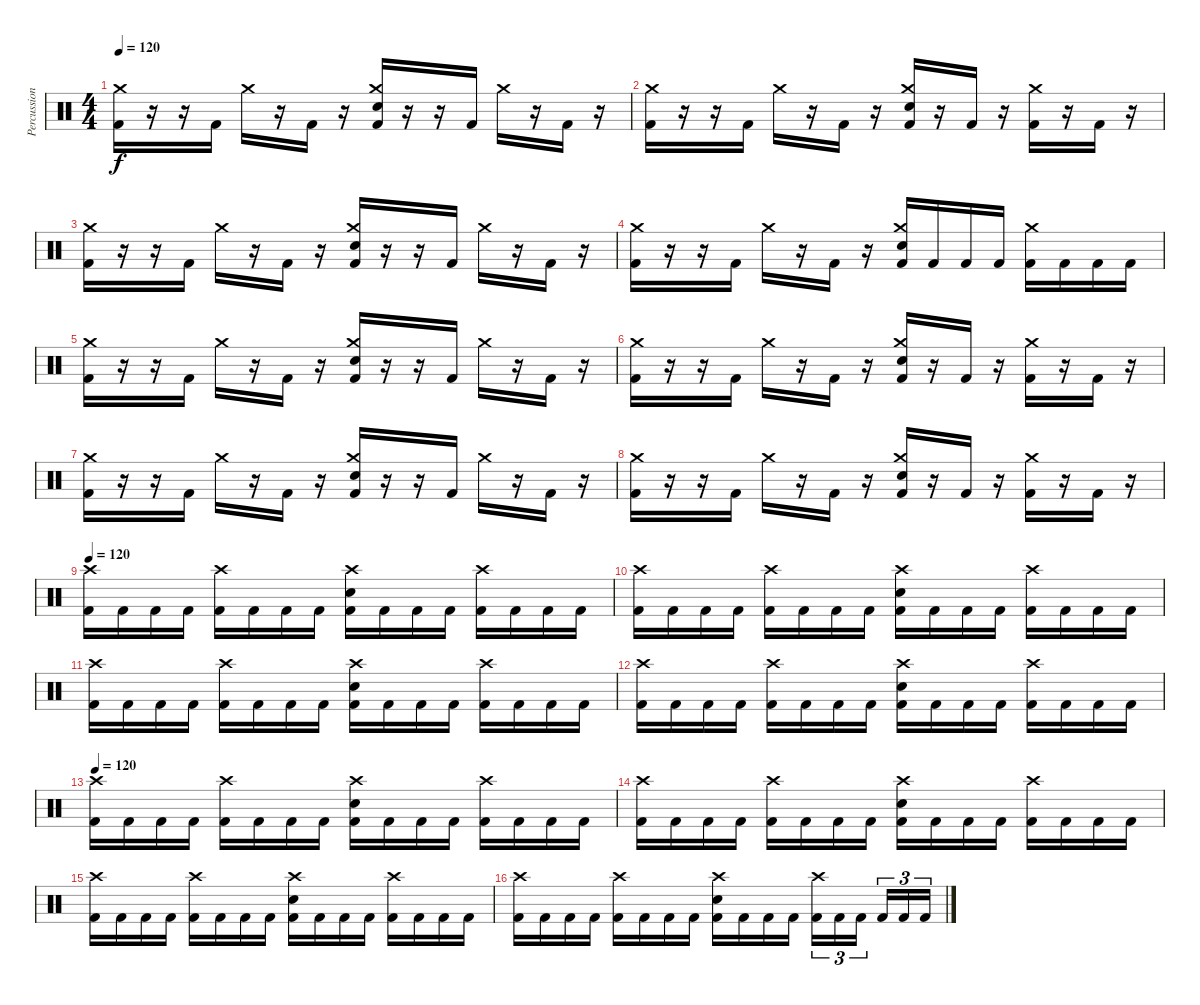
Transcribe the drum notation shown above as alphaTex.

\track ("Percussion" "Percussion") {instrument percussion}
\staff {score}
\articulation defaults
\ts (4 4)
\tempo 120
\clef neutral
\ks c
("Kick (hit) 2" "Crash medium (hit)").16{dy f} r.16 r.16 "Kick (hit) 2".16 "Crash medium (hit)".16 r.16 "Kick (hit) 2".16 r.16 ("Kick (hit) 2" "Snare (hit) 2" "Crash medium (hit)").16 r.16 r.16 "Kick (hit) 2".16 "Crash medium (hit)".16 r.16 "Kick (hit) 2".16 r.16 |
("Kick (hit) 2" "Crash medium (hit)").16 r.16 r.16 "Kick (hit) 2".16 "Crash medium (hit)".16 r.16 "Kick (hit) 2".16 r.16 ("Kick (hit) 2" "Snare (hit) 2" "Crash medium (hit)").16 r.16 "Kick (hit) 2".16 r.16 ("Kick (hit) 2" "Crash medium (hit)").16 r.16 "Kick (hit) 2".16 r.16 |
("Kick (hit) 2" "Crash medium (hit)").16 r.16 r.16 "Kick (hit) 2".16 "Crash medium (hit)".16 r.16 "Kick (hit) 2".16 r.16 ("Kick (hit) 2" "Snare (hit) 2" "Crash medium (hit)").16 r.16 r.16 "Kick (hit) 2".16 "Crash medium (hit)".16 r.16 "Kick (hit) 2".16 r.16 |
("Kick (hit) 2" "Crash medium (hit)").16 r.16 r.16 "Kick (hit) 2".16 "Crash medium (hit)".16 r.16 "Kick (hit) 2".16 r.16 ("Kick (hit) 2" "Snare (hit) 2" "Crash medium (hit)").16 "Kick (hit) 2".16 "Kick (hit) 2".16 "Kick (hit) 2".16 ("Kick (hit) 2" "Crash medium (hit)").16 "Kick (hit) 2".16 "Kick (hit) 2".16 "Kick (hit) 2".16 |
("Kick (hit) 2" "Crash medium (hit)").16 r.16 r.16 "Kick (hit) 2".16 "Crash medium (hit)".16 r.16 "Kick (hit) 2".16 r.16 ("Kick (hit) 2" "Snare (hit) 2" "Crash medium (hit)").16 r.16 r.16 "Kick (hit) 2".16 "Crash medium (hit)".16 r.16 "Kick (hit) 2".16 r.16 |
("Kick (hit) 2" "Crash medium (hit)").16 r.16 r.16 "Kick (hit) 2".16 "Crash medium (hit)".16 r.16 "Kick (hit) 2".16 r.16 ("Kick (hit) 2" "Snare (hit) 2" "Crash medium (hit)").16 r.16 "Kick (hit) 2".16 r.16 ("Kick (hit) 2" "Crash medium (hit)").16 r.16 "Kick (hit) 2".16 r.16 |
("Kick (hit) 2" "Crash medium (hit)").16 r.16 r.16 "Kick (hit) 2".16 "Crash medium (hit)".16 r.16 "Kick (hit) 2".16 r.16 ("Kick (hit) 2" "Snare (hit) 2" "Crash medium (hit)").16 r.16 r.16 "Kick (hit) 2".16 "Crash medium (hit)".16 r.16 "Kick (hit) 2".16 r.16 |
("Kick (hit) 2" "Crash medium (hit)").16 r.16 r.16 "Kick (hit) 2".16 "Crash medium (hit)".16 r.16 "Kick (hit) 2".16 r.16 ("Kick (hit) 2" "Snare (hit) 2" "Crash medium (hit)").16 r.16 "Kick (hit) 2".16 r.16 ("Kick (hit) 2" "Crash medium (hit)").16 r.16 "Kick (hit) 2".16 r.16 |
\tempo 120
("Kick (hit) 2" "Crash high (hit)").16 "Kick (hit) 2".16 "Kick (hit) 2".16 "Kick (hit) 2".16 ("Kick (hit) 2" "Crash high (hit)").16 "Kick (hit) 2".16 "Kick (hit) 2".16 "Kick (hit) 2".16 ("Kick (hit) 2" "Snare (hit) 2" "Crash high (hit)").16 "Kick (hit) 2".16 "Kick (hit) 2".16 "Kick (hit) 2".16 ("Kick (hit) 2" "Crash high (hit)").16 "Kick (hit) 2".16 "Kick (hit) 2".16 "Kick (hit) 2".16 |
("Kick (hit) 2" "Crash high (hit)").16 "Kick (hit) 2".16 "Kick (hit) 2".16 "Kick (hit) 2".16 ("Kick (hit) 2" "Crash high (hit)").16 "Kick (hit) 2".16 "Kick (hit) 2".16 "Kick (hit) 2".16 ("Kick (hit) 2" "Snare (hit) 2" "Crash high (hit)").16 "Kick (hit) 2".16 "Kick (hit) 2".16 "Kick (hit) 2".16 ("Kick (hit) 2" "Crash high (hit)").16 "Kick (hit) 2".16 "Kick (hit) 2".16 "Kick (hit) 2".16 |
("Kick (hit) 2" "Crash high (hit)").16 "Kick (hit) 2".16 "Kick (hit) 2".16 "Kick (hit) 2".16 ("Kick (hit) 2" "Crash high (hit)").16 "Kick (hit) 2".16 "Kick (hit) 2".16 "Kick (hit) 2".16 ("Kick (hit) 2" "Snare (hit) 2" "Crash high (hit)").16 "Kick (hit) 2".16 "Kick (hit) 2".16 "Kick (hit) 2".16 ("Kick (hit) 2" "Crash high (hit)").16 "Kick (hit) 2".16 "Kick (hit) 2".16 "Kick (hit) 2".16 |
("Kick (hit) 2" "Crash high (hit)").16 "Kick (hit) 2".16 "Kick (hit) 2".16 "Kick (hit) 2".16 ("Kick (hit) 2" "Crash high (hit)").16 "Kick (hit) 2".16 "Kick (hit) 2".16 "Kick (hit) 2".16 ("Kick (hit) 2" "Snare (hit) 2" "Crash high (hit)").16 "Kick (hit) 2".16 "Kick (hit) 2".16 "Kick (hit) 2".16 ("Kick (hit) 2" "Crash high (hit)").16 "Kick (hit) 2".16 "Kick (hit) 2".16 "Kick (hit) 2".16 |
\tempo 120
("Kick (hit) 2" "Crash high (hit)").16 "Kick (hit) 2".16 "Kick (hit) 2".16 "Kick (hit) 2".16 ("Kick (hit) 2" "Crash high (hit)").16 "Kick (hit) 2".16 "Kick (hit) 2".16 "Kick (hit) 2".16 ("Kick (hit) 2" "Snare (hit) 2" "Crash high (hit)").16 "Kick (hit) 2".16 "Kick (hit) 2".16 "Kick (hit) 2".16 ("Kick (hit) 2" "Crash high (hit)").16 "Kick (hit) 2".16 "Kick (hit) 2".16 "Kick (hit) 2".16 |
("Kick (hit) 2" "Crash high (hit)").16 "Kick (hit) 2".16 "Kick (hit) 2".16 "Kick (hit) 2".16 ("Kick (hit) 2" "Crash high (hit)").16 "Kick (hit) 2".16 "Kick (hit) 2".16 "Kick (hit) 2".16 ("Kick (hit) 2" "Snare (hit) 2" "Crash high (hit)").16 "Kick (hit) 2".16 "Kick (hit) 2".16 "Kick (hit) 2".16 ("Kick (hit) 2" "Crash high (hit)").16 "Kick (hit) 2".16 "Kick (hit) 2".16 "Kick (hit) 2".16 |
("Kick (hit) 2" "Crash high (hit)").16 "Kick (hit) 2".16 "Kick (hit) 2".16 "Kick (hit) 2".16 ("Kick (hit) 2" "Crash high (hit)").16 "Kick (hit) 2".16 "Kick (hit) 2".16 "Kick (hit) 2".16 ("Kick (hit) 2" "Snare (hit) 2" "Crash high (hit)").16 "Kick (hit) 2".16 "Kick (hit) 2".16 "Kick (hit) 2".16 ("Kick (hit) 2" "Crash high (hit)").16 "Kick (hit) 2".16 "Kick (hit) 2".16 "Kick (hit) 2".16 |
("Kick (hit) 2" "Crash high (hit)").16 "Kick (hit) 2".16 "Kick (hit) 2".16 "Kick (hit) 2".16 ("Kick (hit) 2" "Crash high (hit)").16 "Kick (hit) 2".16 "Kick (hit) 2".16 "Kick (hit) 2".16 ("Kick (hit) 2" "Snare (hit) 2" "Crash high (hit)").16 "Kick (hit) 2".16 "Kick (hit) 2".16 "Kick (hit) 2".16 ("Kick (hit) 2" "Crash high (hit)").16{tu (3 2)} "Kick (hit) 2".16{tu (3 2)} "Kick (hit) 2".16{tu (3 2) beam splitsecondary} "Kick (hit) 2".16{tu (3 2)} "Kick (hit) 2".16{tu (3 2)} "Kick (hit) 2".16{tu (3 2)}
